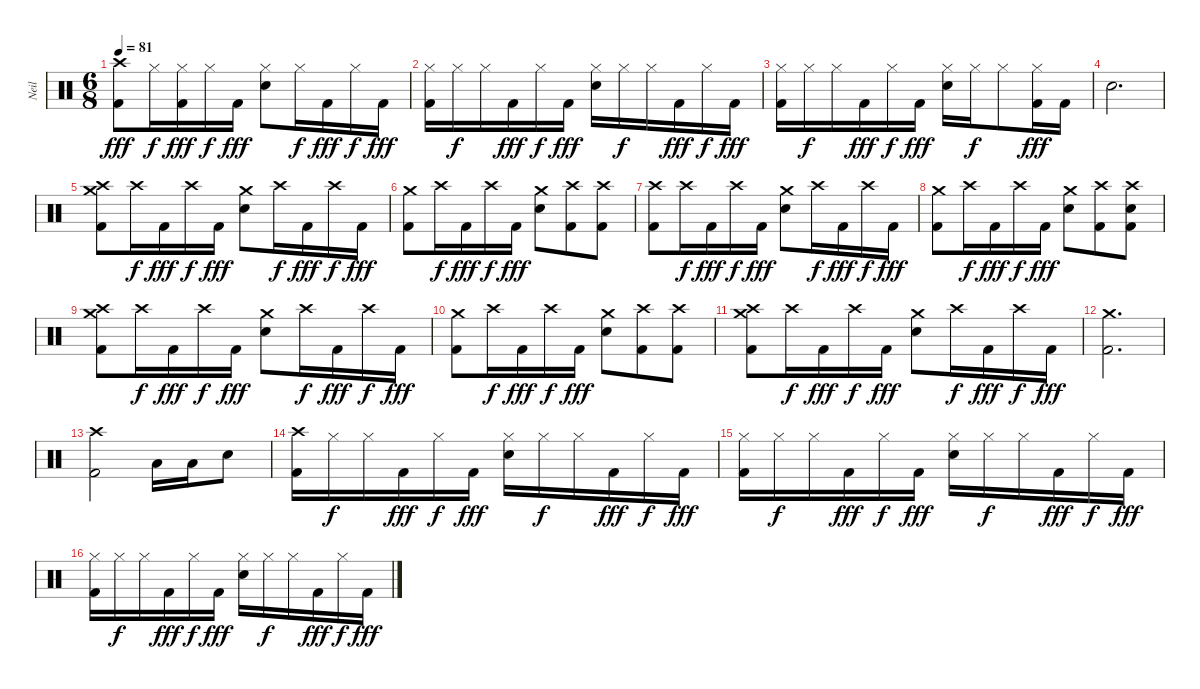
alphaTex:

\track ("Neil" "Neil") {instrument percussion}
\staff {score}
\articulation defaults
\ts (6 8)
\tempo 81
\clef neutral
\ks c
("Crash high (hit)" "Kick (hit) 2").8{dy fff} "Hi-Hat (closed)".16{dy f} ("Hi-Hat (closed)" "Kick (hit) 2").16{dy fff} "Hi-Hat (closed)".16{dy f} "Kick (hit) 2".16{dy fff} ("Hi-Hat (closed)" "Electric Snare (hit)").8 "Hi-Hat (closed)".16{dy f} "Kick (hit) 2".16{dy fff} "Hi-Hat (closed)".16{dy f} "Kick (hit) 2".16{dy fff} |
("Hi-Hat (closed)" "Kick (hit) 2").16 "Hi-Hat (closed)".16{dy f} "Hi-Hat (closed)".16 "Kick (hit) 2".16{dy fff} "Hi-Hat (closed)".16{dy f} "Kick (hit) 2".16{dy fff} ("Hi-Hat (closed)" "Electric Snare (hit)").16 "Hi-Hat (closed)".16{dy f} "Hi-Hat (closed)".16 "Kick (hit) 2".16{dy fff} "Hi-Hat (closed)".16{dy f} "Kick (hit) 2".16{dy fff} |
("Hi-Hat (closed)" "Kick (hit) 2").16 "Hi-Hat (closed)".16{dy f} "Hi-Hat (closed)".16 "Kick (hit) 2".16{dy fff} "Hi-Hat (closed)".16{dy f} "Kick (hit) 2".16{dy fff} ("Hi-Hat (closed)" "Electric Snare (hit)").16 "Hi-Hat (closed)".16{dy f} "Hi-Hat (closed)".8 ("Hi-Hat (closed)" "Kick (hit) 2").16{dy fff} "Kick (hit) 2".16 |
"Electric Snare (hit)".2{d} |
("Crash high (hit)" "Crash medium (hit)" "Kick (hit) 2").8 "Crash high (hit)".16{dy f} "Kick (hit) 2".16{dy fff} "Crash high (hit)".16{dy f} "Kick (hit) 2".16{dy fff} ("Crash medium (hit)" "Electric Snare (hit)").8 "Crash high (hit)".16{dy f} "Kick (hit) 2".16{dy fff} "Crash high (hit)".16{dy f} "Kick (hit) 2".16{dy fff} |
("Crash medium (hit)" "Kick (hit) 2").8 "Crash high (hit)".16{dy f} "Kick (hit) 2".16{dy fff} "Crash high (hit)".16{dy f} "Kick (hit) 2".16{dy fff} ("Crash medium (hit)" "Electric Snare (hit)").8 ("Crash high (hit)" "Kick (hit) 2").8 ("Crash high (hit)" "Kick (hit) 2").8 |
("Crash high (hit)" "Kick (hit) 2").8 "Crash high (hit)".16{dy f} "Kick (hit) 2".16{dy fff} "Crash high (hit)".16{dy f} "Kick (hit) 2".16{dy fff} ("Crash medium (hit)" "Electric Snare (hit)").8 "Crash high (hit)".16{dy f} "Kick (hit) 2".16{dy fff} "Crash high (hit)".16{dy f} "Kick (hit) 2".16{dy fff} |
("Crash medium (hit)" "Kick (hit) 2").8 "Crash high (hit)".16{dy f} "Kick (hit) 2".16{dy fff} "Crash high (hit)".16{dy f} "Kick (hit) 2".16{dy fff} ("Crash medium (hit)" "Electric Snare (hit)").8 ("Crash high (hit)" "Kick (hit) 2").8 ("Crash high (hit)" "Electric Snare (hit)" "Kick (hit) 2").8 |
("Crash high (hit)" "Crash medium (hit)" "Kick (hit) 2").8 "Crash high (hit)".16{dy f} "Kick (hit) 2".16{dy fff} "Crash high (hit)".16{dy f} "Kick (hit) 2".16{dy fff} ("Crash medium (hit)" "Electric Snare (hit)").8 "Crash high (hit)".16{dy f} "Kick (hit) 2".16{dy fff} "Crash high (hit)".16{dy f} "Kick (hit) 2".16{dy fff} |
("Crash medium (hit)" "Kick (hit) 2").8 "Crash high (hit)".16{dy f} "Kick (hit) 2".16{dy fff} "Crash high (hit)".16{dy f} "Kick (hit) 2".16{dy fff} ("Crash medium (hit)" "Electric Snare (hit)").8 ("Crash high (hit)" "Kick (hit) 2").8 ("Crash high (hit)" "Kick (hit) 2").8 |
("Crash high (hit)" "Crash medium (hit)" "Kick (hit) 2").8 "Crash high (hit)".16{dy f} "Kick (hit) 2".16{dy fff} "Crash high (hit)".16{dy f} "Kick (hit) 2".16{dy fff} ("Crash medium (hit)" "Electric Snare (hit)").8 "Crash high (hit)".16{dy f} "Kick (hit) 2".16{dy fff} "Crash high (hit)".16{dy f} "Kick (hit) 2".16{dy fff} |
("Crash medium (hit)" "Kick (hit) 2").2{d} |
("Crash high (hit)" "Kick (hit) 2").2 "Low Tom (hit)".16 "Low Tom (hit)".16 "Electric Snare (hit)".8 |
("Crash high (hit)" "Kick (hit) 2").16 "Hi-Hat (closed)".16{dy f} "Hi-Hat (closed)".16 "Kick (hit) 2".16{dy fff} "Hi-Hat (closed)".16{dy f} "Kick (hit) 2".16{dy fff} ("Hi-Hat (closed)" "Electric Snare (hit)").16 "Hi-Hat (closed)".16{dy f} "Hi-Hat (closed)".16 "Kick (hit) 2".16{dy fff} "Hi-Hat (closed)".16{dy f} "Kick (hit) 2".16{dy fff} |
("Hi-Hat (closed)" "Kick (hit) 2").16 "Hi-Hat (closed)".16{dy f} "Hi-Hat (closed)".16 "Kick (hit) 2".16{dy fff} "Hi-Hat (closed)".16{dy f} "Kick (hit) 2".16{dy fff} ("Hi-Hat (closed)" "Electric Snare (hit)").16 "Hi-Hat (closed)".16{dy f} "Hi-Hat (closed)".16 "Kick (hit) 2".16{dy fff} "Hi-Hat (closed)".16{dy f} "Kick (hit) 2".16{dy fff} |
("Hi-Hat (closed)" "Kick (hit) 2").16 "Hi-Hat (closed)".16{dy f} "Hi-Hat (closed)".16 "Kick (hit) 2".16{dy fff} "Hi-Hat (closed)".16{dy f} "Kick (hit) 2".16{dy fff} ("Hi-Hat (closed)" "Electric Snare (hit)").16 "Hi-Hat (closed)".16{dy f} "Hi-Hat (closed)".16 "Kick (hit) 2".16{dy fff} "Hi-Hat (closed)".16{dy f} "Kick (hit) 2".16{dy fff}
